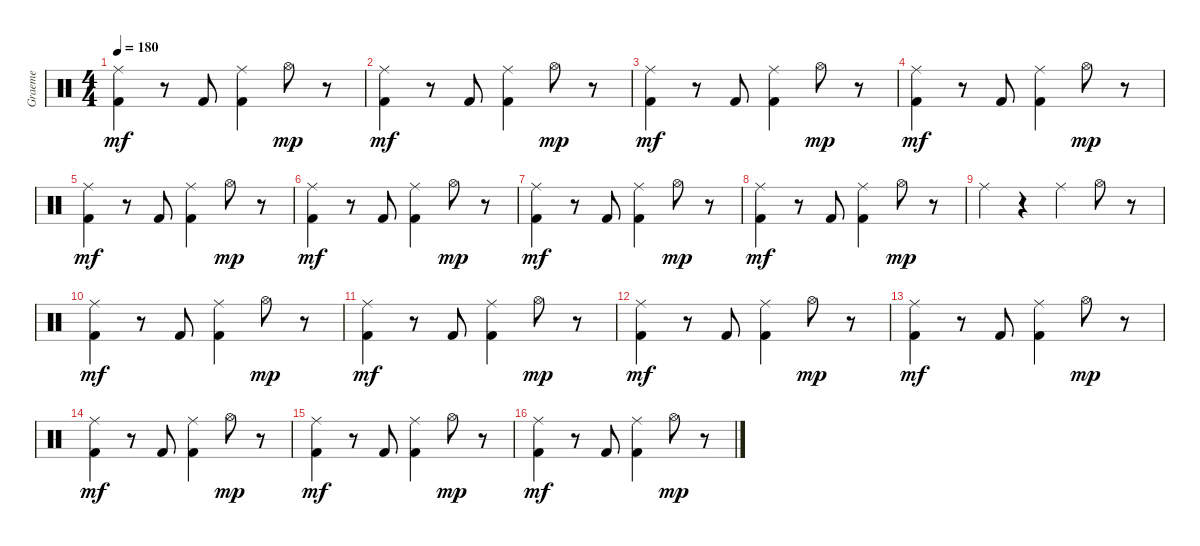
\track ("Graeme" "Graeme") {instrument percussion}
\staff {score}
\articulation defaults
\ts (4 4)
\tempo 180
\clef neutral
\ks c
("Ride (middle)" "Kick (hit) 2").4{dy mf} r.8 "Kick (hit) 2".8 ("Ride (middle)" "Kick (hit) 2").4 "Hi-Hat (open)".8{dy mp} r.8 |
("Ride (middle)" "Kick (hit) 2").4{dy mf} r.8 "Kick (hit) 2".8 ("Ride (middle)" "Kick (hit) 2").4 "Hi-Hat (open)".8{dy mp} r.8 |
("Ride (middle)" "Kick (hit) 2").4{dy mf} r.8 "Kick (hit) 2".8 ("Ride (middle)" "Kick (hit) 2").4 "Hi-Hat (open)".8{dy mp} r.8 |
("Ride (middle)" "Kick (hit) 2").4{dy mf} r.8 "Kick (hit) 2".8 ("Ride (middle)" "Kick (hit) 2").4 "Hi-Hat (open)".8{dy mp} r.8 |
("Ride (middle)" "Kick (hit) 2").4{dy mf} r.8 "Kick (hit) 2".8 ("Ride (middle)" "Kick (hit) 2").4 "Hi-Hat (open)".8{dy mp} r.8 |
("Ride (middle)" "Kick (hit) 2").4{dy mf} r.8 "Kick (hit) 2".8 ("Ride (middle)" "Kick (hit) 2").4 "Hi-Hat (open)".8{dy mp} r.8 |
("Ride (middle)" "Kick (hit) 2").4{dy mf} r.8 "Kick (hit) 2".8 ("Ride (middle)" "Kick (hit) 2").4 "Hi-Hat (open)".8{dy mp} r.8 |
("Ride (middle)" "Kick (hit) 2").4{dy mf} r.8 "Kick (hit) 2".8 ("Ride (middle)" "Kick (hit) 2").4 "Hi-Hat (open)".8{dy mp} r.8 |
"Ride (middle)".4 r.4 "Ride (middle)".4 "Hi-Hat (open)".8 r.8 |
("Ride (middle)" "Kick (hit) 2").4{dy mf} r.8 "Kick (hit) 2".8 ("Ride (middle)" "Kick (hit) 2").4 "Hi-Hat (open)".8{dy mp} r.8 |
("Ride (middle)" "Kick (hit) 2").4{dy mf} r.8 "Kick (hit) 2".8 ("Ride (middle)" "Kick (hit) 2").4 "Hi-Hat (open)".8{dy mp} r.8 |
("Ride (middle)" "Kick (hit) 2").4{dy mf} r.8 "Kick (hit) 2".8 ("Ride (middle)" "Kick (hit) 2").4 "Hi-Hat (open)".8{dy mp} r.8 |
("Ride (middle)" "Kick (hit) 2").4{dy mf} r.8 "Kick (hit) 2".8 ("Ride (middle)" "Kick (hit) 2").4 "Hi-Hat (open)".8{dy mp} r.8 |
("Ride (middle)" "Kick (hit) 2").4{dy mf} r.8 "Kick (hit) 2".8 ("Ride (middle)" "Kick (hit) 2").4 "Hi-Hat (open)".8{dy mp} r.8 |
("Ride (middle)" "Kick (hit) 2").4{dy mf} r.8 "Kick (hit) 2".8 ("Ride (middle)" "Kick (hit) 2").4 "Hi-Hat (open)".8{dy mp} r.8 |
("Ride (middle)" "Kick (hit) 2").4{dy mf} r.8 "Kick (hit) 2".8 ("Ride (middle)" "Kick (hit) 2").4 "Hi-Hat (open)".8{dy mp} r.8
